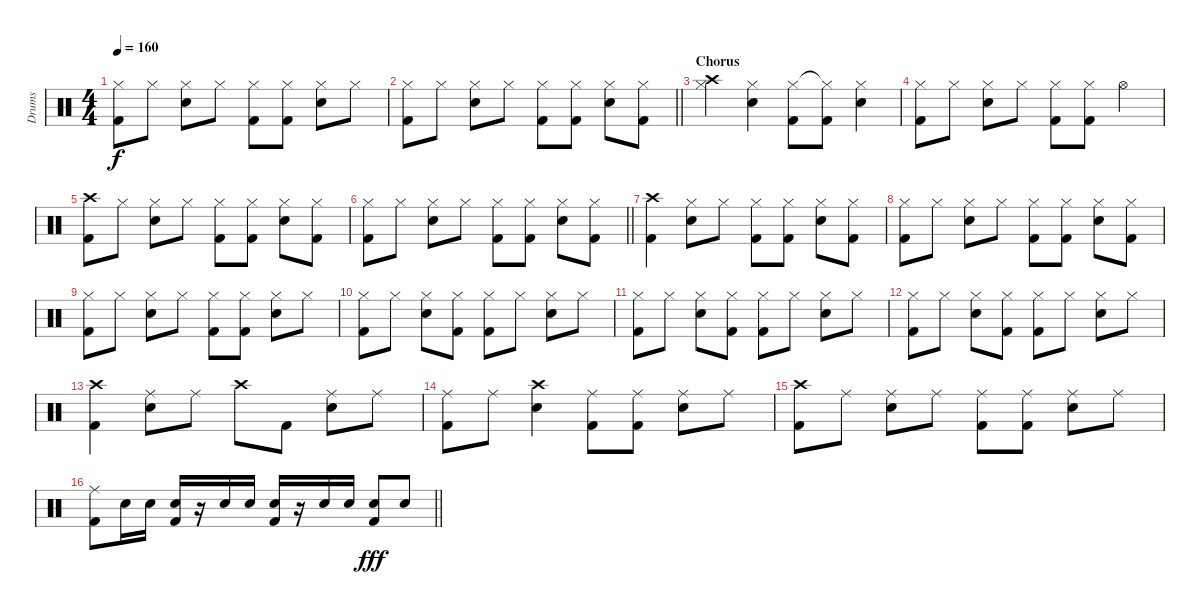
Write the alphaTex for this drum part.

\track ("Drums" "Drums") {instrument percussion}
\staff {score}
\articulation defaults
\ts (4 4)
\tempo 160
\clef neutral
\ks c
("Hi-Hat (closed)" "Kick (hit) 2").8{dy f} "Hi-Hat (closed)".8 ("Hi-Hat (closed)" "Electric Snare (hit)").8 "Hi-Hat (closed)".8 ("Hi-Hat (closed)" "Kick (hit) 2").8 ("Hi-Hat (closed)" "Kick (hit) 2").8 ("Hi-Hat (closed)" "Electric Snare (hit)").8 "Hi-Hat (closed)".8 |
\barLineRight lightlight
("Hi-Hat (closed)" "Kick (hit) 2").8 "Hi-Hat (closed)".8 ("Hi-Hat (closed)" "Electric Snare (hit)").8 "Hi-Hat (closed)".8 ("Hi-Hat (closed)" "Kick (hit) 2").8 ("Hi-Hat (closed)" "Kick (hit) 2").8 ("Hi-Hat (closed)" "Electric Snare (hit)").8 ("Hi-Hat (closed)" "Kick (hit) 2").8 |
\section ("" "Chorus")
("Crash high (hit)" "Hi-Hat (closed)").4 ("Hi-Hat (closed)" "Electric Snare (hit)").4 ("Hi-Hat (closed)" "Kick (hit) 2").8 ("Hi-Hat (closed)"{t} "Kick (hit) 2").8 ("Hi-Hat (closed)" "Electric Snare (hit)").4 |
("Hi-Hat (closed)" "Kick (hit) 2").8 "Hi-Hat (closed)".8 ("Hi-Hat (closed)" "Electric Snare (hit)").8 "Hi-Hat (closed)".8 ("Hi-Hat (closed)" "Kick (hit) 2").8 ("Hi-Hat (closed)" "Kick (hit) 2").8 "Hi-Hat (open)".4 |
("Crash high (hit)" "Kick (hit) 2").8 "Hi-Hat (closed)".8 ("Hi-Hat (closed)" "Electric Snare (hit)").8 "Hi-Hat (closed)".8 ("Hi-Hat (closed)" "Kick (hit) 2").8 ("Hi-Hat (closed)" "Kick (hit) 2").8 ("Hi-Hat (closed)" "Electric Snare (hit)").8 ("Hi-Hat (closed)" "Kick (hit) 2").8 |
\barLineRight lightlight
("Hi-Hat (closed)" "Kick (hit) 2").8 "Hi-Hat (closed)".8 ("Hi-Hat (closed)" "Electric Snare (hit)").8 "Hi-Hat (closed)".8 ("Hi-Hat (closed)" "Kick (hit) 2").8 ("Hi-Hat (closed)" "Kick (hit) 2").8 ("Hi-Hat (closed)" "Electric Snare (hit)").8 ("Hi-Hat (closed)" "Kick (hit) 2").8 |
("Crash high (hit)" "Kick (hit) 2").4 ("Hi-Hat (closed)" "Electric Snare (hit)").8 "Hi-Hat (closed)".8 ("Hi-Hat (closed)" "Kick (hit) 2").8 ("Hi-Hat (closed)" "Kick (hit) 2").8 ("Hi-Hat (closed)" "Electric Snare (hit)").8 ("Hi-Hat (closed)" "Kick (hit) 2").8 |
("Hi-Hat (closed)" "Kick (hit) 2").8 "Hi-Hat (closed)".8 ("Hi-Hat (closed)" "Electric Snare (hit)").8 "Hi-Hat (closed)".8 ("Hi-Hat (closed)" "Kick (hit) 2").8 ("Hi-Hat (closed)" "Kick (hit) 2").8 ("Hi-Hat (closed)" "Electric Snare (hit)").8 ("Hi-Hat (closed)" "Kick (hit) 2").8 |
("Hi-Hat (closed)" "Kick (hit) 2").8 "Hi-Hat (closed)".8 ("Hi-Hat (closed)" "Electric Snare (hit)").8 "Hi-Hat (closed)".8 ("Hi-Hat (closed)" "Kick (hit) 2").8 ("Hi-Hat (closed)" "Kick (hit) 2").8 ("Hi-Hat (closed)" "Electric Snare (hit)").8 "Hi-Hat (closed)".8 |
("Hi-Hat (closed)" "Kick (hit) 2").8 "Hi-Hat (closed)".8 ("Hi-Hat (closed)" "Electric Snare (hit)").8 ("Hi-Hat (closed)" "Kick (hit) 2").8 ("Hi-Hat (closed)" "Kick (hit) 2").8 "Hi-Hat (closed)".8 ("Hi-Hat (closed)" "Electric Snare (hit)").8 "Hi-Hat (closed)".8 |
("Hi-Hat (closed)" "Kick (hit) 2").8 "Hi-Hat (closed)".8 ("Hi-Hat (closed)" "Electric Snare (hit)").8 ("Hi-Hat (closed)" "Kick (hit) 2").8 ("Hi-Hat (closed)" "Kick (hit) 2").8 "Hi-Hat (closed)".8 ("Hi-Hat (closed)" "Electric Snare (hit)").8 "Hi-Hat (closed)".8 |
("Hi-Hat (closed)" "Kick (hit) 2").8 "Hi-Hat (closed)".8 ("Hi-Hat (closed)" "Electric Snare (hit)").8 ("Hi-Hat (closed)" "Kick (hit) 2").8 ("Hi-Hat (closed)" "Kick (hit) 2").8 "Hi-Hat (closed)".8 ("Hi-Hat (closed)" "Electric Snare (hit)").8 "Hi-Hat (closed)".8 |
("Crash high (hit)" "Kick (hit) 2").4 ("Ride (middle)" "Electric Snare (hit)").8 "Ride (middle)".8 "Crash high (hit)".8 "Kick (hit) 2".8 ("Ride (middle)" "Electric Snare (hit)").8 "Ride (middle)".8 |
("Ride (middle)" "Kick (hit) 2").8 "Ride (middle)".8 ("Crash high (hit)" "Electric Snare (hit)").4 ("Ride (middle)" "Kick (hit) 2").8 ("Ride (middle)" "Kick (hit) 2").8 ("Ride (middle)" "Electric Snare (hit)").8 "Ride (middle)".8 |
("Crash high (hit)" "Kick (hit) 2").8 "Ride (middle)".8 ("Ride (middle)" "Electric Snare (hit)").8 "Ride (middle)".8 ("Ride (middle)" "Kick (hit) 2").8 ("Ride (middle)" "Kick (hit) 2").8 ("Ride (middle)" "Electric Snare (hit)").8 "Ride (middle)".8 |
\barLineRight lightlight
("Ride (middle)" "Kick (hit) 2").8 "Electric Snare (hit)".16 "Electric Snare (hit)".16 ("Electric Snare (hit)" "Kick (hit) 2").16 r.16 "Electric Snare (hit)".16 "Electric Snare (hit)".16 ("Electric Snare (hit)" "Kick (hit) 2").16 r.16 "Electric Snare (hit)".16 "Electric Snare (hit)".16 ("Electric Snare (hit)" "Kick (hit) 2").8{dy fff} "Electric Snare (hit)".8
